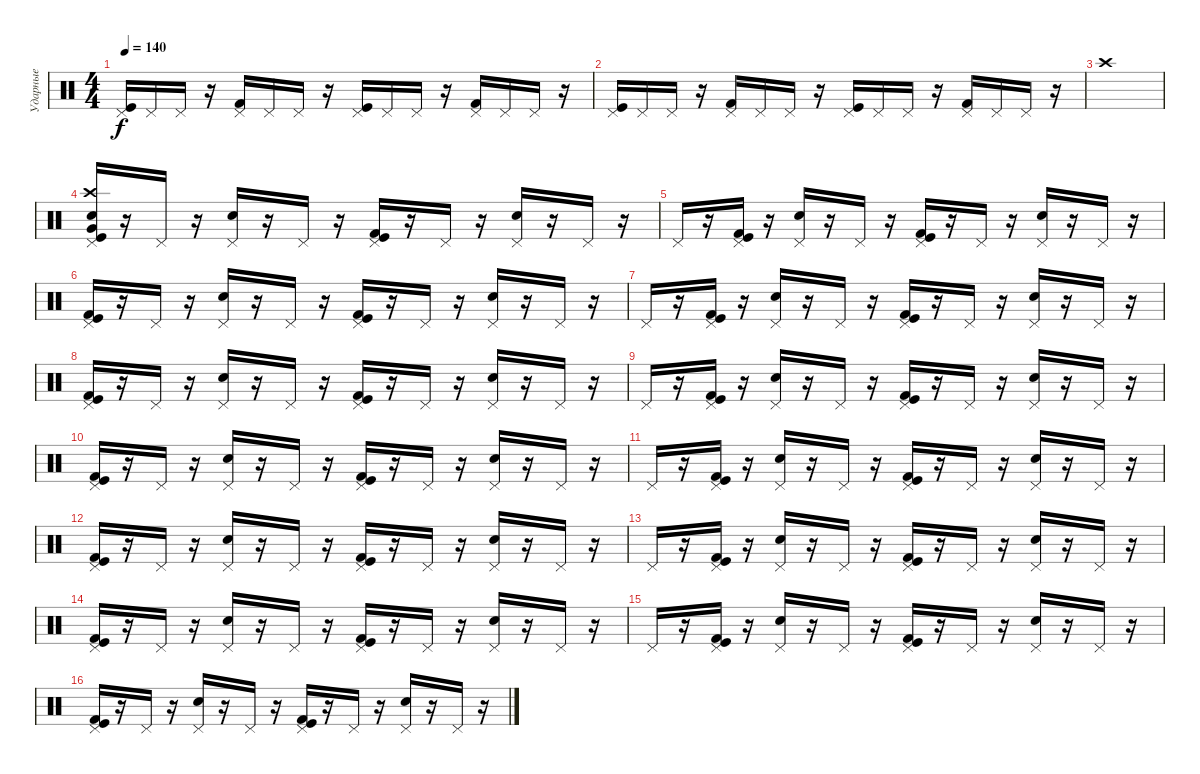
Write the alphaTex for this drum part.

\track ("Ударные" "Ударные") {instrument percussion}
\staff {score}
\articulation defaults
\ts (4 4)
\tempo 140
\clef neutral
\ks c
("Kick (hit)" "Pedal Hi-Hat (hit)").16{dy f} "Pedal Hi-Hat (hit)".16 "Pedal Hi-Hat (hit)".16 r.16 ("Kick (hit) 2" "Pedal Hi-Hat (hit)").16 "Pedal Hi-Hat (hit)".16 "Pedal Hi-Hat (hit)".16 r.16 ("Kick (hit)" "Pedal Hi-Hat (hit)").16 "Pedal Hi-Hat (hit)".16 "Pedal Hi-Hat (hit)".16 r.16 ("Kick (hit) 2" "Pedal Hi-Hat (hit)").16 "Pedal Hi-Hat (hit)".16 "Pedal Hi-Hat (hit)".16 r.16 |
("Kick (hit)" "Pedal Hi-Hat (hit)").16 "Pedal Hi-Hat (hit)".16 "Pedal Hi-Hat (hit)".16 r.16 ("Kick (hit) 2" "Pedal Hi-Hat (hit)").16 "Pedal Hi-Hat (hit)".16 "Pedal Hi-Hat (hit)".16 r.16 ("Kick (hit)" "Pedal Hi-Hat (hit)").16 "Pedal Hi-Hat (hit)".16 "Pedal Hi-Hat (hit)".16 r.16 ("Kick (hit) 2" "Pedal Hi-Hat (hit)").16 "Pedal Hi-Hat (hit)".16 "Pedal Hi-Hat (hit)".16 r.16 |
"Crash high (hit)".1 |
("Very Low Tom (hit)" "Snare (hit) 2" "Kick (hit)" "Crash high (hit)" "Pedal Hi-Hat (hit)").16 r.16 "Pedal Hi-Hat (hit)".16 r.16 ("Snare (hit) 2" "Pedal Hi-Hat (hit)").16 r.16 "Pedal Hi-Hat (hit)".16 r.16 ("Kick (hit) 2" "Kick (hit)" "Pedal Hi-Hat (hit)").16 r.16 "Pedal Hi-Hat (hit)".16 r.16 ("Snare (hit) 2" "Pedal Hi-Hat (hit)").16 r.16 "Pedal Hi-Hat (hit)".16 r.16 |
"Pedal Hi-Hat (hit)".16 r.16 ("Kick (hit) 2" "Kick (hit)" "Pedal Hi-Hat (hit)").16 r.16 ("Snare (hit) 2" "Pedal Hi-Hat (hit)").16 r.16 "Pedal Hi-Hat (hit)".16 r.16 ("Kick (hit) 2" "Kick (hit)" "Pedal Hi-Hat (hit)").16 r.16 "Pedal Hi-Hat (hit)".16 r.16 ("Snare (hit) 2" "Pedal Hi-Hat (hit)").16 r.16 "Pedal Hi-Hat (hit)".16 r.16 |
("Kick (hit) 2" "Kick (hit)" "Pedal Hi-Hat (hit)").16 r.16 "Pedal Hi-Hat (hit)".16 r.16 ("Snare (hit) 2" "Pedal Hi-Hat (hit)").16 r.16 "Pedal Hi-Hat (hit)".16 r.16 ("Kick (hit) 2" "Kick (hit)" "Pedal Hi-Hat (hit)").16 r.16 "Pedal Hi-Hat (hit)".16 r.16 ("Snare (hit) 2" "Pedal Hi-Hat (hit)").16 r.16 "Pedal Hi-Hat (hit)".16 r.16 |
"Pedal Hi-Hat (hit)".16 r.16 ("Kick (hit) 2" "Kick (hit)" "Pedal Hi-Hat (hit)").16 r.16 ("Snare (hit) 2" "Pedal Hi-Hat (hit)").16 r.16 "Pedal Hi-Hat (hit)".16 r.16 ("Kick (hit) 2" "Kick (hit)" "Pedal Hi-Hat (hit)").16 r.16 "Pedal Hi-Hat (hit)".16 r.16 ("Snare (hit) 2" "Pedal Hi-Hat (hit)").16 r.16 "Pedal Hi-Hat (hit)".16 r.16 |
("Kick (hit) 2" "Kick (hit)" "Pedal Hi-Hat (hit)").16 r.16 "Pedal Hi-Hat (hit)".16 r.16 ("Snare (hit) 2" "Pedal Hi-Hat (hit)").16 r.16 "Pedal Hi-Hat (hit)".16 r.16 ("Kick (hit) 2" "Kick (hit)" "Pedal Hi-Hat (hit)").16 r.16 "Pedal Hi-Hat (hit)".16 r.16 ("Snare (hit) 2" "Pedal Hi-Hat (hit)").16 r.16 "Pedal Hi-Hat (hit)".16 r.16 |
"Pedal Hi-Hat (hit)".16 r.16 ("Kick (hit) 2" "Kick (hit)" "Pedal Hi-Hat (hit)").16 r.16 ("Snare (hit) 2" "Pedal Hi-Hat (hit)").16 r.16 "Pedal Hi-Hat (hit)".16 r.16 ("Kick (hit) 2" "Kick (hit)" "Pedal Hi-Hat (hit)").16 r.16 "Pedal Hi-Hat (hit)".16 r.16 ("Snare (hit) 2" "Pedal Hi-Hat (hit)").16 r.16 "Pedal Hi-Hat (hit)".16 r.16 |
("Kick (hit) 2" "Kick (hit)" "Pedal Hi-Hat (hit)").16 r.16 "Pedal Hi-Hat (hit)".16 r.16 ("Snare (hit) 2" "Pedal Hi-Hat (hit)").16 r.16 "Pedal Hi-Hat (hit)".16 r.16 ("Kick (hit) 2" "Kick (hit)" "Pedal Hi-Hat (hit)").16 r.16 "Pedal Hi-Hat (hit)".16 r.16 ("Snare (hit) 2" "Pedal Hi-Hat (hit)").16 r.16 "Pedal Hi-Hat (hit)".16 r.16 |
"Pedal Hi-Hat (hit)".16 r.16 ("Kick (hit) 2" "Kick (hit)" "Pedal Hi-Hat (hit)").16 r.16 ("Snare (hit) 2" "Pedal Hi-Hat (hit)").16 r.16 "Pedal Hi-Hat (hit)".16 r.16 ("Kick (hit) 2" "Kick (hit)" "Pedal Hi-Hat (hit)").16 r.16 "Pedal Hi-Hat (hit)".16 r.16 ("Snare (hit) 2" "Pedal Hi-Hat (hit)").16 r.16 "Pedal Hi-Hat (hit)".16 r.16 |
("Kick (hit) 2" "Kick (hit)" "Pedal Hi-Hat (hit)").16 r.16 "Pedal Hi-Hat (hit)".16 r.16 ("Snare (hit) 2" "Pedal Hi-Hat (hit)").16 r.16 "Pedal Hi-Hat (hit)".16 r.16 ("Kick (hit) 2" "Kick (hit)" "Pedal Hi-Hat (hit)").16 r.16 "Pedal Hi-Hat (hit)".16 r.16 ("Snare (hit) 2" "Pedal Hi-Hat (hit)").16 r.16 "Pedal Hi-Hat (hit)".16 r.16 |
"Pedal Hi-Hat (hit)".16 r.16 ("Kick (hit) 2" "Kick (hit)" "Pedal Hi-Hat (hit)").16 r.16 ("Snare (hit) 2" "Pedal Hi-Hat (hit)").16 r.16 "Pedal Hi-Hat (hit)".16 r.16 ("Kick (hit) 2" "Kick (hit)" "Pedal Hi-Hat (hit)").16 r.16 "Pedal Hi-Hat (hit)".16 r.16 ("Snare (hit) 2" "Pedal Hi-Hat (hit)").16 r.16 "Pedal Hi-Hat (hit)".16 r.16 |
("Kick (hit) 2" "Kick (hit)" "Pedal Hi-Hat (hit)").16 r.16 "Pedal Hi-Hat (hit)".16 r.16 ("Snare (hit) 2" "Pedal Hi-Hat (hit)").16 r.16 "Pedal Hi-Hat (hit)".16 r.16 ("Kick (hit) 2" "Kick (hit)" "Pedal Hi-Hat (hit)").16 r.16 "Pedal Hi-Hat (hit)".16 r.16 ("Snare (hit) 2" "Pedal Hi-Hat (hit)").16 r.16 "Pedal Hi-Hat (hit)".16 r.16 |
"Pedal Hi-Hat (hit)".16 r.16 ("Kick (hit) 2" "Kick (hit)" "Pedal Hi-Hat (hit)").16 r.16 ("Snare (hit) 2" "Pedal Hi-Hat (hit)").16 r.16 "Pedal Hi-Hat (hit)".16 r.16 ("Kick (hit) 2" "Kick (hit)" "Pedal Hi-Hat (hit)").16 r.16 "Pedal Hi-Hat (hit)".16 r.16 ("Snare (hit) 2" "Pedal Hi-Hat (hit)").16 r.16 "Pedal Hi-Hat (hit)".16 r.16 |
("Kick (hit) 2" "Kick (hit)" "Pedal Hi-Hat (hit)").16 r.16 "Pedal Hi-Hat (hit)".16 r.16 ("Snare (hit) 2" "Pedal Hi-Hat (hit)").16 r.16 "Pedal Hi-Hat (hit)".16 r.16 ("Kick (hit) 2" "Kick (hit)" "Pedal Hi-Hat (hit)").16 r.16 "Pedal Hi-Hat (hit)".16 r.16 ("Snare (hit) 2" "Pedal Hi-Hat (hit)").16 r.16 "Pedal Hi-Hat (hit)".16 r.16
